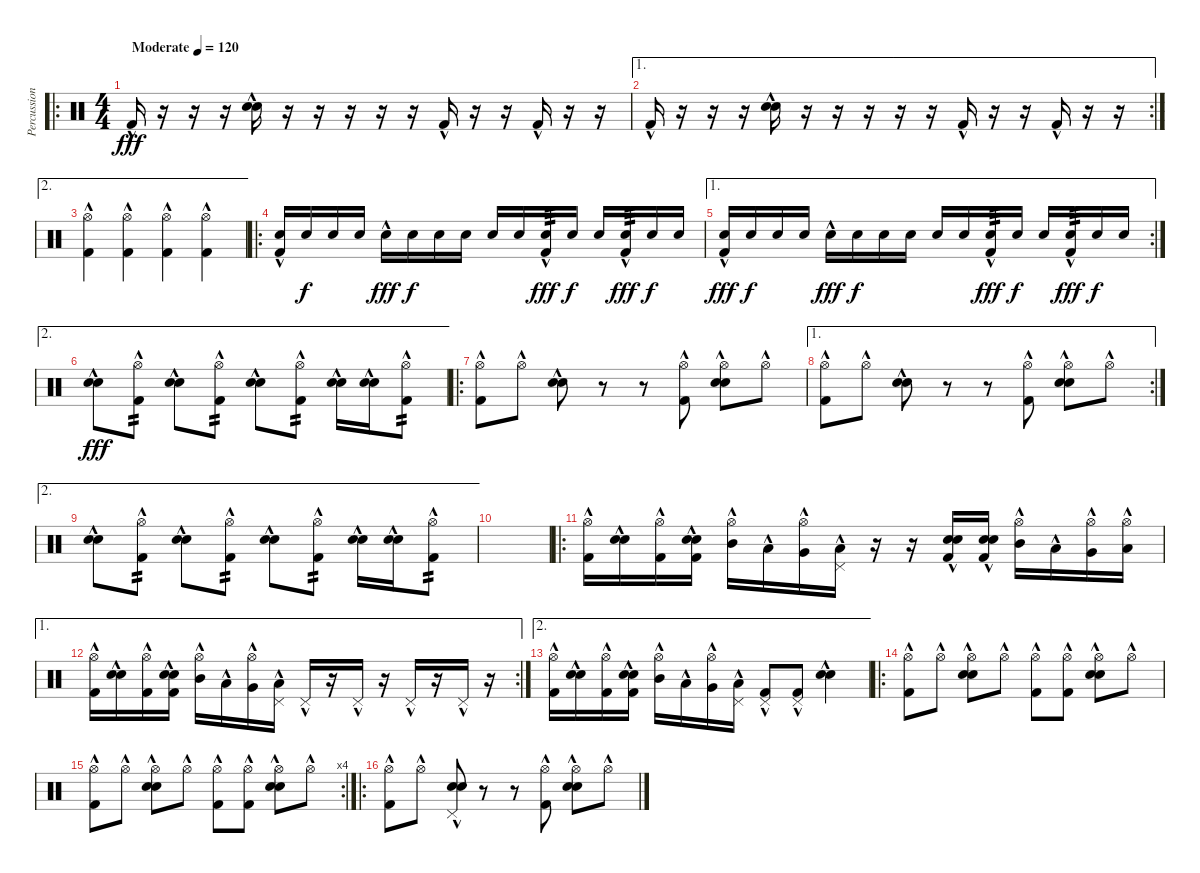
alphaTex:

\track ("Percussion" "Percussion") {instrument percussion}
\staff {score}
\articulation defaults
\ro
\ts (4 4)
\tempo (120 "Moderate")
\clef neutral
\ks c "Kick (hit) 2"{hac}.16{dy fff}
r.16 r.16 r.16 ("Electric Snare (hit)"{hac} "Snare (hit) 2"{hac}).16 r.16 r.16 r.16 r.16 r.16 "Kick (hit) 2"{hac}.16 r.16 r.16 "Kick (hit) 2"{hac}.16 r.16 r.16 |
\ae 1
\rc 2 "Kick (hit) 2"{hac}.16
r.16 r.16 r.16 ("Electric Snare (hit)"{hac} "Snare (hit) 2"{hac}).16 r.16 r.16 r.16 r.16 r.16 "Kick (hit) 2"{hac}.16 r.16 r.16 "Kick (hit) 2"{hac}.16 r.16 r.16 |
\ae 2
("Hi-Hat (open)"{hac} "Kick (hit) 2"{hac}).4 ("Hi-Hat (open)"{hac} "Kick (hit) 2"{hac}).4 ("Hi-Hat (open)"{hac} "Kick (hit) 2"{hac}).4 ("Hi-Hat (open)"{hac} "Kick (hit) 2"{hac}).4 |
\ro
("Snare (hit) 2" "Kick (hit) 2"{hac}).16 "Snare (hit) 2".16{dy f} "Snare (hit) 2".16 "Snare (hit) 2".16 "Snare (hit) 2"{hac}.16{dy fff} "Snare (hit) 2".16{dy f} "Snare (hit) 2".16 "Snare (hit) 2".16 "Snare (hit) 2".16 "Snare (hit) 2".16 ("Snare (hit) 2" "Kick (hit) 2"{hac}).16{tp 3 dy fff} "Snare (hit) 2".16{dy f} "Snare (hit) 2".16 ("Snare (hit) 2" "Kick (hit) 2"{hac}).16{tp 3 dy fff} "Snare (hit) 2".16{dy f} "Snare (hit) 2".16 |
\ae 1
\rc 2
("Snare (hit) 2" "Kick (hit) 2"{hac}).16{dy fff} "Snare (hit) 2".16{dy f} "Snare (hit) 2".16 "Snare (hit) 2".16 "Snare (hit) 2"{hac}.16{dy fff} "Snare (hit) 2".16{dy f} "Snare (hit) 2".16 "Snare (hit) 2".16 "Snare (hit) 2".16 "Snare (hit) 2".16 ("Snare (hit) 2" "Kick (hit) 2"{hac}).16{tp 3 dy fff} "Snare (hit) 2".16{dy f} "Snare (hit) 2".16 ("Snare (hit) 2" "Kick (hit) 2"{hac}).16{tp 3 dy fff} "Snare (hit) 2".16{dy f} "Snare (hit) 2".16 |
\ae 2
("Electric Snare (hit)"{hac} "Snare (hit) 2"{hac}).8{dy fff} ("Hi-Hat (open)"{hac} "Kick (hit) 2"{hac}).8{tp 2} ("Electric Snare (hit)"{hac} "Snare (hit) 2"{hac}).8 ("Hi-Hat (open)"{hac} "Kick (hit) 2"{hac}).8{tp 2} ("Electric Snare (hit)"{hac} "Snare (hit) 2"{hac}).8 ("Hi-Hat (open)"{hac} "Kick (hit) 2"{hac}).8{tp 2} ("Electric Snare (hit)"{hac} "Snare (hit) 2"{hac}).16 ("Electric Snare (hit)"{hac} "Snare (hit) 2"{hac}).16 ("Hi-Hat (open)"{hac} "Kick (hit) 2"{hac}).8{tp 2} |
\ro
("Hi-Hat (open)"{hac} "Kick (hit) 2"{hac}).8 "Hi-Hat (open)"{hac}.8 ("Electric Snare (hit)"{hac} "Snare (hit) 2"{hac}).8 r.8 r.8 ("Hi-Hat (open)"{hac} "Kick (hit) 2"{hac}).8 ("Electric Snare (hit)"{hac} "Snare (hit) 2"{hac} "Hi-Hat (open)"{hac}).8 "Hi-Hat (open)"{hac}.8 |
\ae 1
\rc 2
("Hi-Hat (open)"{hac} "Kick (hit) 2"{hac}).8 "Hi-Hat (open)"{hac}.8 ("Electric Snare (hit)"{hac} "Snare (hit) 2"{hac}).8 r.8 r.8 ("Hi-Hat (open)"{hac} "Kick (hit) 2"{hac}).8 ("Electric Snare (hit)"{hac} "Snare (hit) 2"{hac} "Hi-Hat (open)"{hac}).8 "Hi-Hat (open)"{hac}.8 |
\ae 2
("Electric Snare (hit)"{hac} "Snare (hit) 2"{hac}).8 ("Hi-Hat (open)"{hac} "Kick (hit) 2"{hac}).8{tp 2} ("Electric Snare (hit)"{hac} "Snare (hit) 2"{hac}).8 ("Hi-Hat (open)"{hac} "Kick (hit) 2"{hac}).8{tp 2} ("Electric Snare (hit)"{hac} "Snare (hit) 2"{hac}).8 ("Hi-Hat (open)"{hac} "Kick (hit) 2"{hac}).8{tp 2} ("Electric Snare (hit)"{hac} "Snare (hit) 2"{hac}).16 ("Electric Snare (hit)"{hac} "Snare (hit) 2"{hac}).16 ("Hi-Hat (open)"{hac} "Kick (hit) 2"{hac}).8{tp 2} |
|
\ro
("Hi-Hat (open)"{hac} "Kick (hit) 2"{hac}).16 ("Electric Snare (hit)"{hac} "Snare (hit) 2"{hac}).16 ("Hi-Hat (open)"{hac} "Kick (hit) 2"{hac}).16 ("Electric Snare (hit)"{hac} "Snare (hit) 2"{hac} "Kick (hit) 2"{hac}).16 ("Mid Tom (hit)"{hac} "Hi-Hat (open)"{hac}).16 "Low Tom (hit)"{hac}.16 ("Very Low Tom (hit)"{hac} "Hi-Hat (open)"{hac}).16 ("Low Floor Tom (hit)"{hac} "Pedal Hi-Hat (hit)").16 r.16 r.16 ("Electric Snare (hit)"{hac} "Snare (hit) 2"{hac} "Kick (hit) 2"{hac}).16 ("Electric Snare (hit)"{hac} "Snare (hit) 2"{hac} "Kick (hit) 2"{hac}).16 ("Mid Tom (hit)"{hac} "Hi-Hat (open)"{hac}).16 "Low Tom (hit)"{hac}.16 ("Very Low Tom (hit)"{hac} "Hi-Hat (open)"{hac}).16 ("Low Floor Tom (hit)"{hac} "Hi-Hat (open)").16 |
\ae 1
\rc 2
("Hi-Hat (open)"{hac} "Kick (hit) 2"{hac}).16 ("Electric Snare (hit)"{hac} "Snare (hit) 2"{hac}).16 ("Hi-Hat (open)"{hac} "Kick (hit) 2"{hac}).16 ("Electric Snare (hit)"{hac} "Snare (hit) 2"{hac} "Kick (hit) 2"{hac}).16 ("Mid Tom (hit)"{hac} "Hi-Hat (open)"{hac}).16 "Low Tom (hit)"{hac}.16 ("Very Low Tom (hit)"{hac} "Hi-Hat (open)"{hac}).16 ("Low Floor Tom (hit)"{hac} "Pedal Hi-Hat (hit)").16 "Pedal Hi-Hat (hit)"{hac}.16 r.16 "Pedal Hi-Hat (hit)"{hac}.16 r.16 "Pedal Hi-Hat (hit)"{hac}.16 r.16 "Pedal Hi-Hat (hit)"{hac}.16 r.16 |
\ae 2
("Hi-Hat (open)"{hac} "Kick (hit) 2"{hac}).16 ("Electric Snare (hit)"{hac} "Snare (hit) 2"{hac}).16 ("Hi-Hat (open)"{hac} "Kick (hit) 2"{hac}).16 ("Electric Snare (hit)"{hac} "Snare (hit) 2"{hac} "Kick (hit) 2"{hac}).16 ("Mid Tom (hit)"{hac} "Hi-Hat (open)"{hac}).16 "Low Tom (hit)"{hac}.16 ("Very Low Tom (hit)"{hac} "Hi-Hat (open)"{hac}).16 ("Low Floor Tom (hit)"{hac} "Pedal Hi-Hat (hit)"{hac}).16 ("Pedal Hi-Hat (hit)"{hac} "Kick (hit) 2"{hac}).8 ("Pedal Hi-Hat (hit)"{hac} "Kick (hit) 2"{hac}).8 ("Electric Snare (hit)"{hac} "Snare (hit) 2"{hac}).4 |
\ro
("Hi-Hat (open)"{hac} "Kick (hit) 2"{hac}).8 "Hi-Hat (open)"{hac}.8 ("Electric Snare (hit)"{hac} "Snare (hit) 2"{hac} "Hi-Hat (open)"{hac}).8 "Hi-Hat (open)"{hac}.8 ("Hi-Hat (open)"{hac} "Kick (hit) 2"{hac}).8 ("Hi-Hat (open)"{hac} "Kick (hit) 2"{hac}).8 ("Electric Snare (hit)"{hac} "Snare (hit) 2"{hac} "Hi-Hat (open)"{hac}).8 "Hi-Hat (open)"{hac}.8 |
\rc 4
("Hi-Hat (open)"{hac} "Kick (hit) 2"{hac}).8 "Hi-Hat (open)"{hac}.8 ("Electric Snare (hit)"{hac} "Snare (hit) 2"{hac} "Hi-Hat (open)"{hac}).8 "Hi-Hat (open)"{hac}.8 ("Hi-Hat (open)"{hac} "Kick (hit) 2"{hac}).8 ("Hi-Hat (open)"{hac} "Kick (hit) 2"{hac}).8 ("Electric Snare (hit)"{hac} "Snare (hit) 2"{hac} "Hi-Hat (open)"{hac}).8 "Hi-Hat (open)"{hac}.8 |
\ro
("Hi-Hat (open)"{hac} "Kick (hit) 2"{hac}).8 "Hi-Hat (open)"{hac}.8 ("Electric Snare (hit)"{hac} "Snare (hit) 2"{hac} "Pedal Hi-Hat (hit)").8 r.8 r.8 ("Hi-Hat (open)"{hac} "Kick (hit) 2"{hac}).8 ("Electric Snare (hit)"{hac} "Snare (hit) 2"{hac} "Hi-Hat (open)"{hac}).8 "Hi-Hat (open)"{hac}.8
